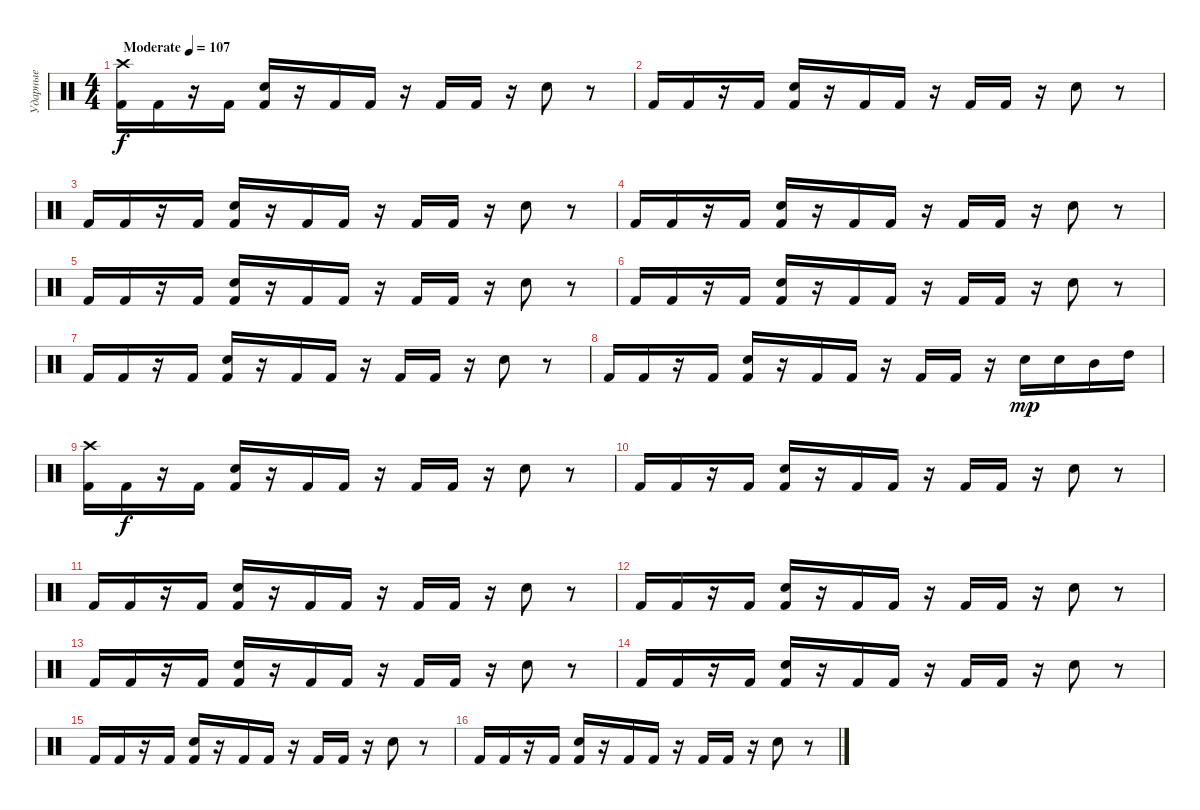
\track ("Ударные" "Ударные") {instrument percussion}
\staff {score}
\articulation defaults
\ts (4 4)
\tempo (107 "Moderate")
\clef neutral
\ks c
("Crash high (hit)" "Kick (hit) 2").16{dy f} "Kick (hit) 2".16 r.16 "Kick (hit) 2".16 ("Snare (hit) 2" "Kick (hit) 2").16 r.16 "Kick (hit) 2".16 "Kick (hit) 2".16 r.16 "Kick (hit) 2".16 "Kick (hit) 2".16 r.16 "Snare (hit) 2".8 r.8 |
"Kick (hit) 2".16 "Kick (hit) 2".16 r.16 "Kick (hit) 2".16 ("Snare (hit) 2" "Kick (hit) 2").16 r.16 "Kick (hit) 2".16 "Kick (hit) 2".16 r.16 "Kick (hit) 2".16 "Kick (hit) 2".16 r.16 "Snare (hit) 2".8 r.8 |
"Kick (hit) 2".16 "Kick (hit) 2".16 r.16 "Kick (hit) 2".16 ("Snare (hit) 2" "Kick (hit) 2").16 r.16 "Kick (hit) 2".16 "Kick (hit) 2".16 r.16 "Kick (hit) 2".16 "Kick (hit) 2".16 r.16 "Snare (hit) 2".8 r.8 |
"Kick (hit) 2".16 "Kick (hit) 2".16 r.16 "Kick (hit) 2".16 ("Snare (hit) 2" "Kick (hit) 2").16 r.16 "Kick (hit) 2".16 "Kick (hit) 2".16 r.16 "Kick (hit) 2".16 "Kick (hit) 2".16 r.16 "Snare (hit) 2".8 r.8 |
"Kick (hit) 2".16 "Kick (hit) 2".16 r.16 "Kick (hit) 2".16 ("Snare (hit) 2" "Kick (hit) 2").16 r.16 "Kick (hit) 2".16 "Kick (hit) 2".16 r.16 "Kick (hit) 2".16 "Kick (hit) 2".16 r.16 "Snare (hit) 2".8 r.8 |
"Kick (hit) 2".16 "Kick (hit) 2".16 r.16 "Kick (hit) 2".16 ("Snare (hit) 2" "Kick (hit) 2").16 r.16 "Kick (hit) 2".16 "Kick (hit) 2".16 r.16 "Kick (hit) 2".16 "Kick (hit) 2".16 r.16 "Snare (hit) 2".8 r.8 |
"Kick (hit) 2".16 "Kick (hit) 2".16 r.16 "Kick (hit) 2".16 ("Snare (hit) 2" "Kick (hit) 2").16 r.16 "Kick (hit) 2".16 "Kick (hit) 2".16 r.16 "Kick (hit) 2".16 "Kick (hit) 2".16 r.16 "Snare (hit) 2".8 r.8 |
"Kick (hit) 2".16 "Kick (hit) 2".16 r.16 "Kick (hit) 2".16 ("Snare (hit) 2" "Kick (hit) 2").16 r.16 "Kick (hit) 2".16 "Kick (hit) 2".16 r.16 "Kick (hit) 2".16 "Kick (hit) 2".16 r.16 "Snare (hit) 2".16{dy mp} "Electric Snare (hit)".16 "Mid Tom (hit)".16 "High Tom (hit)".16 |
("Crash high (hit)" "Kick (hit) 2").16 "Kick (hit) 2".16{dy f} r.16 "Kick (hit) 2".16 ("Snare (hit) 2" "Kick (hit) 2").16 r.16 "Kick (hit) 2".16 "Kick (hit) 2".16 r.16 "Kick (hit) 2".16 "Kick (hit) 2".16 r.16 "Snare (hit) 2".8 r.8 |
"Kick (hit) 2".16 "Kick (hit) 2".16 r.16 "Kick (hit) 2".16 ("Snare (hit) 2" "Kick (hit) 2").16 r.16 "Kick (hit) 2".16 "Kick (hit) 2".16 r.16 "Kick (hit) 2".16 "Kick (hit) 2".16 r.16 "Snare (hit) 2".8 r.8 |
"Kick (hit) 2".16 "Kick (hit) 2".16 r.16 "Kick (hit) 2".16 ("Snare (hit) 2" "Kick (hit) 2").16 r.16 "Kick (hit) 2".16 "Kick (hit) 2".16 r.16 "Kick (hit) 2".16 "Kick (hit) 2".16 r.16 "Snare (hit) 2".8 r.8 |
"Kick (hit) 2".16 "Kick (hit) 2".16 r.16 "Kick (hit) 2".16 ("Snare (hit) 2" "Kick (hit) 2").16 r.16 "Kick (hit) 2".16 "Kick (hit) 2".16 r.16 "Kick (hit) 2".16 "Kick (hit) 2".16 r.16 "Snare (hit) 2".8 r.8 |
"Kick (hit) 2".16 "Kick (hit) 2".16 r.16 "Kick (hit) 2".16 ("Snare (hit) 2" "Kick (hit) 2").16 r.16 "Kick (hit) 2".16 "Kick (hit) 2".16 r.16 "Kick (hit) 2".16 "Kick (hit) 2".16 r.16 "Snare (hit) 2".8 r.8 |
"Kick (hit) 2".16 "Kick (hit) 2".16 r.16 "Kick (hit) 2".16 ("Snare (hit) 2" "Kick (hit) 2").16 r.16 "Kick (hit) 2".16 "Kick (hit) 2".16 r.16 "Kick (hit) 2".16 "Kick (hit) 2".16 r.16 "Snare (hit) 2".8 r.8 |
"Kick (hit) 2".16 "Kick (hit) 2".16 r.16 "Kick (hit) 2".16 ("Snare (hit) 2" "Kick (hit) 2").16 r.16 "Kick (hit) 2".16 "Kick (hit) 2".16 r.16 "Kick (hit) 2".16 "Kick (hit) 2".16 r.16 "Snare (hit) 2".8 r.8 |
"Kick (hit) 2".16 "Kick (hit) 2".16 r.16 "Kick (hit) 2".16 ("Snare (hit) 2" "Kick (hit) 2").16 r.16 "Kick (hit) 2".16 "Kick (hit) 2".16 r.16 "Kick (hit) 2".16 "Kick (hit) 2".16 r.16 "Snare (hit) 2".8 r.8
